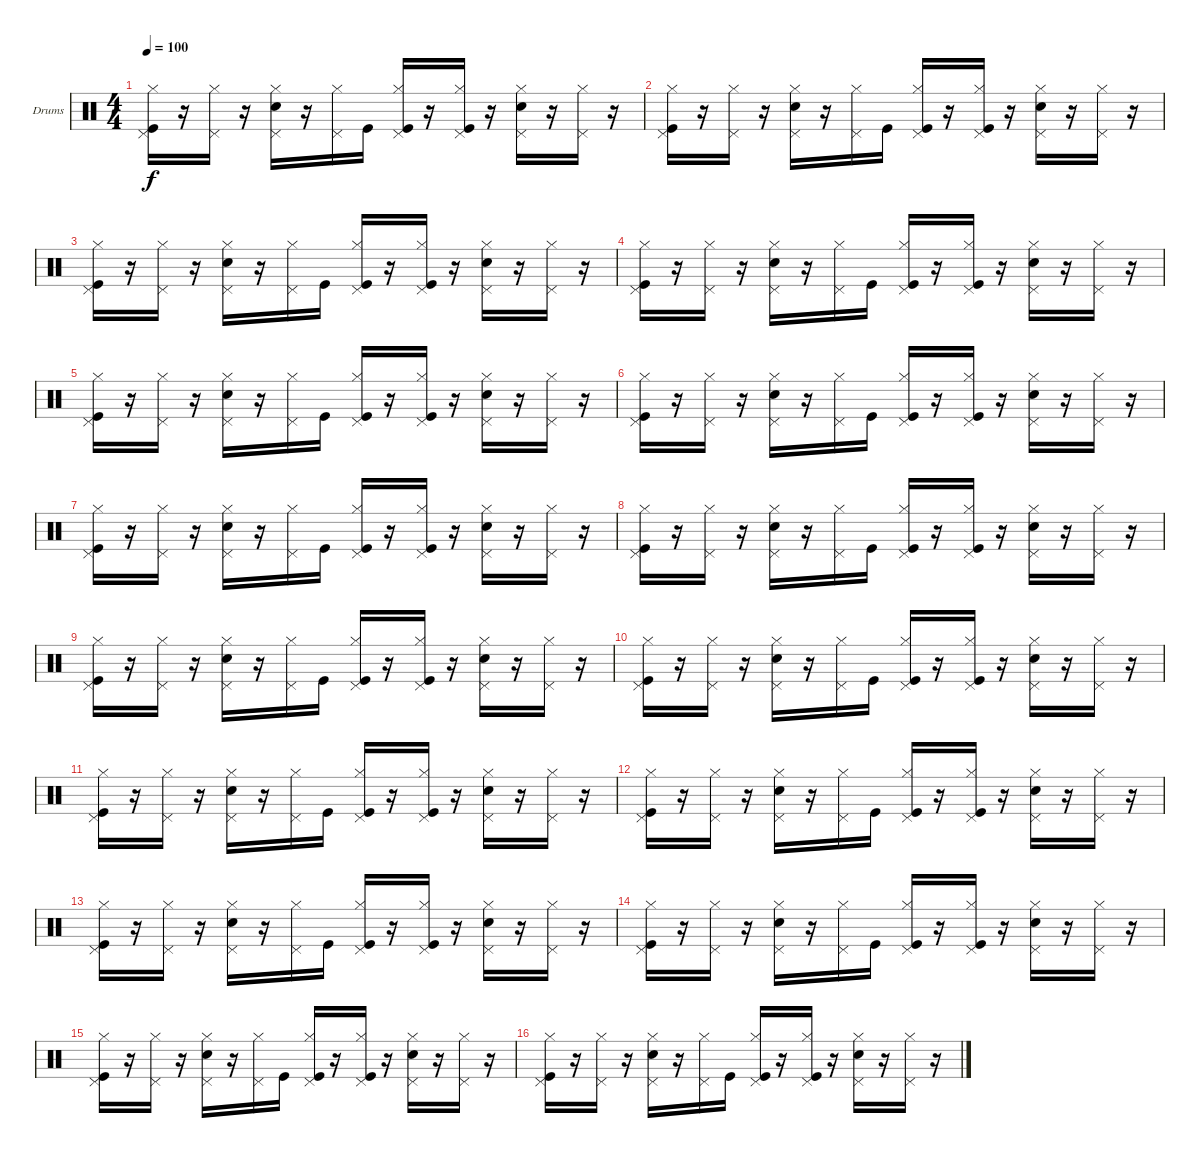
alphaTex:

\bracketExtendMode groupsimilarinstruments
\firstSystemTrackNameOrientation horizontal
\otherSystemsTrackNameOrientation horizontal
\track ("Drumkit" "Drums") {instrument percussion}
\staff {score}
\articulation defaults
\ts (4 4)
\tempo 100
\clef neutral
\ks c
("Kick (hit)" "Hi-Hat (closed)" "Pedal Hi-Hat (hit)").16{dy f} r.16 ("Hi-Hat (closed)" "Pedal Hi-Hat (hit)").16 r.16 ("Snare (hit) 2" "Hi-Hat (closed)" "Pedal Hi-Hat (hit)").16 r.16 ("Hi-Hat (closed)" "Pedal Hi-Hat (hit)").16 "Kick (hit)".16 ("Kick (hit)" "Hi-Hat (closed)" "Pedal Hi-Hat (hit)").16 r.16 ("Kick (hit)" "Hi-Hat (closed)" "Pedal Hi-Hat (hit)").16 r.16 ("Snare (hit) 2" "Hi-Hat (closed)" "Pedal Hi-Hat (hit)").16 r.16 ("Hi-Hat (closed)" "Pedal Hi-Hat (hit)").16 r.16 |
("Kick (hit)" "Hi-Hat (closed)" "Pedal Hi-Hat (hit)").16 r.16 ("Hi-Hat (closed)" "Pedal Hi-Hat (hit)").16 r.16 ("Snare (hit) 2" "Hi-Hat (closed)" "Pedal Hi-Hat (hit)").16 r.16 ("Hi-Hat (closed)" "Pedal Hi-Hat (hit)").16 "Kick (hit)".16 ("Kick (hit)" "Hi-Hat (closed)" "Pedal Hi-Hat (hit)").16 r.16 ("Kick (hit)" "Hi-Hat (closed)" "Pedal Hi-Hat (hit)").16 r.16 ("Snare (hit) 2" "Hi-Hat (closed)" "Pedal Hi-Hat (hit)").16 r.16 ("Hi-Hat (closed)" "Pedal Hi-Hat (hit)").16 r.16 |
("Kick (hit)" "Hi-Hat (closed)" "Pedal Hi-Hat (hit)").16 r.16 ("Hi-Hat (closed)" "Pedal Hi-Hat (hit)").16 r.16 ("Snare (hit) 2" "Hi-Hat (closed)" "Pedal Hi-Hat (hit)").16 r.16 ("Hi-Hat (closed)" "Pedal Hi-Hat (hit)").16 "Kick (hit)".16 ("Kick (hit)" "Hi-Hat (closed)" "Pedal Hi-Hat (hit)").16 r.16 ("Kick (hit)" "Hi-Hat (closed)" "Pedal Hi-Hat (hit)").16 r.16 ("Snare (hit) 2" "Hi-Hat (closed)" "Pedal Hi-Hat (hit)").16 r.16 ("Hi-Hat (closed)" "Pedal Hi-Hat (hit)").16 r.16 |
("Kick (hit)" "Hi-Hat (closed)" "Pedal Hi-Hat (hit)").16 r.16 ("Hi-Hat (closed)" "Pedal Hi-Hat (hit)").16 r.16 ("Snare (hit) 2" "Hi-Hat (closed)" "Pedal Hi-Hat (hit)").16 r.16 ("Hi-Hat (closed)" "Pedal Hi-Hat (hit)").16 "Kick (hit)".16 ("Kick (hit)" "Hi-Hat (closed)" "Pedal Hi-Hat (hit)").16 r.16 ("Kick (hit)" "Hi-Hat (closed)" "Pedal Hi-Hat (hit)").16 r.16 ("Snare (hit) 2" "Hi-Hat (closed)" "Pedal Hi-Hat (hit)").16 r.16 ("Hi-Hat (closed)" "Pedal Hi-Hat (hit)").16 r.16 |
("Kick (hit)" "Hi-Hat (closed)" "Pedal Hi-Hat (hit)").16 r.16 ("Hi-Hat (closed)" "Pedal Hi-Hat (hit)").16 r.16 ("Snare (hit) 2" "Hi-Hat (closed)" "Pedal Hi-Hat (hit)").16 r.16 ("Hi-Hat (closed)" "Pedal Hi-Hat (hit)").16 "Kick (hit)".16 ("Kick (hit)" "Hi-Hat (closed)" "Pedal Hi-Hat (hit)").16 r.16 ("Kick (hit)" "Hi-Hat (closed)" "Pedal Hi-Hat (hit)").16 r.16 ("Snare (hit) 2" "Hi-Hat (closed)" "Pedal Hi-Hat (hit)").16 r.16 ("Hi-Hat (closed)" "Pedal Hi-Hat (hit)").16 r.16 |
("Kick (hit)" "Hi-Hat (closed)" "Pedal Hi-Hat (hit)").16 r.16 ("Hi-Hat (closed)" "Pedal Hi-Hat (hit)").16 r.16 ("Snare (hit) 2" "Hi-Hat (closed)" "Pedal Hi-Hat (hit)").16 r.16 ("Hi-Hat (closed)" "Pedal Hi-Hat (hit)").16 "Kick (hit)".16 ("Kick (hit)" "Hi-Hat (closed)" "Pedal Hi-Hat (hit)").16 r.16 ("Kick (hit)" "Hi-Hat (closed)" "Pedal Hi-Hat (hit)").16 r.16 ("Snare (hit) 2" "Hi-Hat (closed)" "Pedal Hi-Hat (hit)").16 r.16 ("Hi-Hat (closed)" "Pedal Hi-Hat (hit)").16 r.16 |
("Kick (hit)" "Hi-Hat (closed)" "Pedal Hi-Hat (hit)").16 r.16 ("Hi-Hat (closed)" "Pedal Hi-Hat (hit)").16 r.16 ("Snare (hit) 2" "Hi-Hat (closed)" "Pedal Hi-Hat (hit)").16 r.16 ("Hi-Hat (closed)" "Pedal Hi-Hat (hit)").16 "Kick (hit)".16 ("Kick (hit)" "Hi-Hat (closed)" "Pedal Hi-Hat (hit)").16 r.16 ("Kick (hit)" "Hi-Hat (closed)" "Pedal Hi-Hat (hit)").16 r.16 ("Snare (hit) 2" "Hi-Hat (closed)" "Pedal Hi-Hat (hit)").16 r.16 ("Hi-Hat (closed)" "Pedal Hi-Hat (hit)").16 r.16 |
("Kick (hit)" "Hi-Hat (closed)" "Pedal Hi-Hat (hit)").16 r.16 ("Hi-Hat (closed)" "Pedal Hi-Hat (hit)").16 r.16 ("Snare (hit) 2" "Hi-Hat (closed)" "Pedal Hi-Hat (hit)").16 r.16 ("Hi-Hat (closed)" "Pedal Hi-Hat (hit)").16 "Kick (hit)".16 ("Kick (hit)" "Hi-Hat (closed)" "Pedal Hi-Hat (hit)").16 r.16 ("Kick (hit)" "Hi-Hat (closed)" "Pedal Hi-Hat (hit)").16 r.16 ("Snare (hit) 2" "Hi-Hat (closed)" "Pedal Hi-Hat (hit)").16 r.16 ("Hi-Hat (closed)" "Pedal Hi-Hat (hit)").16 r.16 |
("Kick (hit)" "Hi-Hat (closed)" "Pedal Hi-Hat (hit)").16 r.16 ("Hi-Hat (closed)" "Pedal Hi-Hat (hit)").16 r.16 ("Snare (hit) 2" "Hi-Hat (closed)" "Pedal Hi-Hat (hit)").16 r.16 ("Hi-Hat (closed)" "Pedal Hi-Hat (hit)").16 "Kick (hit)".16 ("Kick (hit)" "Hi-Hat (closed)" "Pedal Hi-Hat (hit)").16 r.16 ("Kick (hit)" "Hi-Hat (closed)" "Pedal Hi-Hat (hit)").16 r.16 ("Snare (hit) 2" "Hi-Hat (closed)" "Pedal Hi-Hat (hit)").16 r.16 ("Hi-Hat (closed)" "Pedal Hi-Hat (hit)").16 r.16 |
("Kick (hit)" "Hi-Hat (closed)" "Pedal Hi-Hat (hit)").16 r.16 ("Hi-Hat (closed)" "Pedal Hi-Hat (hit)").16 r.16 ("Snare (hit) 2" "Hi-Hat (closed)" "Pedal Hi-Hat (hit)").16 r.16 ("Hi-Hat (closed)" "Pedal Hi-Hat (hit)").16 "Kick (hit)".16 ("Kick (hit)" "Hi-Hat (closed)" "Pedal Hi-Hat (hit)").16 r.16 ("Kick (hit)" "Hi-Hat (closed)" "Pedal Hi-Hat (hit)").16 r.16 ("Snare (hit) 2" "Hi-Hat (closed)" "Pedal Hi-Hat (hit)").16 r.16 ("Hi-Hat (closed)" "Pedal Hi-Hat (hit)").16 r.16 |
("Kick (hit)" "Hi-Hat (closed)" "Pedal Hi-Hat (hit)").16 r.16 ("Hi-Hat (closed)" "Pedal Hi-Hat (hit)").16 r.16 ("Snare (hit) 2" "Hi-Hat (closed)" "Pedal Hi-Hat (hit)").16 r.16 ("Hi-Hat (closed)" "Pedal Hi-Hat (hit)").16 "Kick (hit)".16 ("Kick (hit)" "Hi-Hat (closed)" "Pedal Hi-Hat (hit)").16 r.16 ("Kick (hit)" "Hi-Hat (closed)" "Pedal Hi-Hat (hit)").16 r.16 ("Snare (hit) 2" "Hi-Hat (closed)" "Pedal Hi-Hat (hit)").16 r.16 ("Hi-Hat (closed)" "Pedal Hi-Hat (hit)").16 r.16 |
("Kick (hit)" "Hi-Hat (closed)" "Pedal Hi-Hat (hit)").16 r.16 ("Hi-Hat (closed)" "Pedal Hi-Hat (hit)").16 r.16 ("Snare (hit) 2" "Hi-Hat (closed)" "Pedal Hi-Hat (hit)").16 r.16 ("Hi-Hat (closed)" "Pedal Hi-Hat (hit)").16 "Kick (hit)".16 ("Kick (hit)" "Hi-Hat (closed)" "Pedal Hi-Hat (hit)").16 r.16 ("Kick (hit)" "Hi-Hat (closed)" "Pedal Hi-Hat (hit)").16 r.16 ("Snare (hit) 2" "Hi-Hat (closed)" "Pedal Hi-Hat (hit)").16 r.16 ("Hi-Hat (closed)" "Pedal Hi-Hat (hit)").16 r.16 |
("Kick (hit)" "Hi-Hat (closed)" "Pedal Hi-Hat (hit)").16 r.16 ("Hi-Hat (closed)" "Pedal Hi-Hat (hit)").16 r.16 ("Snare (hit) 2" "Hi-Hat (closed)" "Pedal Hi-Hat (hit)").16 r.16 ("Hi-Hat (closed)" "Pedal Hi-Hat (hit)").16 "Kick (hit)".16 ("Kick (hit)" "Hi-Hat (closed)" "Pedal Hi-Hat (hit)").16 r.16 ("Kick (hit)" "Hi-Hat (closed)" "Pedal Hi-Hat (hit)").16 r.16 ("Snare (hit) 2" "Hi-Hat (closed)" "Pedal Hi-Hat (hit)").16 r.16 ("Hi-Hat (closed)" "Pedal Hi-Hat (hit)").16 r.16 |
("Kick (hit)" "Hi-Hat (closed)" "Pedal Hi-Hat (hit)").16 r.16 ("Hi-Hat (closed)" "Pedal Hi-Hat (hit)").16 r.16 ("Snare (hit) 2" "Hi-Hat (closed)" "Pedal Hi-Hat (hit)").16 r.16 ("Hi-Hat (closed)" "Pedal Hi-Hat (hit)").16 "Kick (hit)".16 ("Kick (hit)" "Hi-Hat (closed)" "Pedal Hi-Hat (hit)").16 r.16 ("Kick (hit)" "Hi-Hat (closed)" "Pedal Hi-Hat (hit)").16 r.16 ("Snare (hit) 2" "Hi-Hat (closed)" "Pedal Hi-Hat (hit)").16 r.16 ("Hi-Hat (closed)" "Pedal Hi-Hat (hit)").16 r.16 |
("Kick (hit)" "Hi-Hat (closed)" "Pedal Hi-Hat (hit)").16 r.16 ("Hi-Hat (closed)" "Pedal Hi-Hat (hit)").16 r.16 ("Snare (hit) 2" "Hi-Hat (closed)" "Pedal Hi-Hat (hit)").16 r.16 ("Hi-Hat (closed)" "Pedal Hi-Hat (hit)").16 "Kick (hit)".16 ("Kick (hit)" "Hi-Hat (closed)" "Pedal Hi-Hat (hit)").16 r.16 ("Kick (hit)" "Hi-Hat (closed)" "Pedal Hi-Hat (hit)").16 r.16 ("Snare (hit) 2" "Hi-Hat (closed)" "Pedal Hi-Hat (hit)").16 r.16 ("Hi-Hat (closed)" "Pedal Hi-Hat (hit)").16 r.16 |
("Kick (hit)" "Hi-Hat (closed)" "Pedal Hi-Hat (hit)").16 r.16 ("Hi-Hat (closed)" "Pedal Hi-Hat (hit)").16 r.16 ("Snare (hit) 2" "Hi-Hat (closed)" "Pedal Hi-Hat (hit)").16 r.16 ("Hi-Hat (closed)" "Pedal Hi-Hat (hit)").16 "Kick (hit)".16 ("Kick (hit)" "Hi-Hat (closed)" "Pedal Hi-Hat (hit)").16 r.16 ("Kick (hit)" "Hi-Hat (closed)" "Pedal Hi-Hat (hit)").16 r.16 ("Snare (hit) 2" "Hi-Hat (closed)" "Pedal Hi-Hat (hit)").16 r.16 ("Hi-Hat (closed)" "Pedal Hi-Hat (hit)").16 r.16
